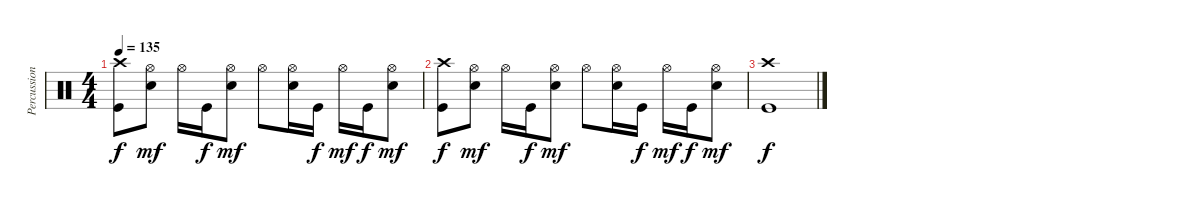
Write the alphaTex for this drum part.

\track ("Percussion" "Percussion") {instrument percussion}
\staff {score}
\articulation defaults
\ts (4 4)
\tempo 135
\clef neutral
\ks c
("Crash high (hit)" "Kick (hit)").8{dy f} ("Hi-Hat (open)" "Electric Snare (hit)").8{dy mf} "Hi-Hat (open)".16 "Kick (hit)".16{dy f} ("Hi-Hat (open)" "Electric Snare (hit)").8{dy mf} "Hi-Hat (open)".8 ("Hi-Hat (open)" "Electric Snare (hit)").16 "Kick (hit)".16{dy f} "Hi-Hat (open)".16{dy mf} "Kick (hit)".16{dy f} ("Hi-Hat (open)" "Electric Snare (hit)").8{dy mf} |
("Crash high (hit)" "Kick (hit)").8{dy f} ("Hi-Hat (open)" "Electric Snare (hit)").8{dy mf} "Hi-Hat (open)".16 "Kick (hit)".16{dy f} ("Hi-Hat (open)" "Electric Snare (hit)").8{dy mf} "Hi-Hat (open)".8 ("Hi-Hat (open)" "Electric Snare (hit)").16 "Kick (hit)".16{dy f} "Hi-Hat (open)".16{dy mf} "Kick (hit)".16{dy f} ("Hi-Hat (open)" "Electric Snare (hit)").8{dy mf} |
("Crash high (hit)" "Kick (hit)").1{dy f}
